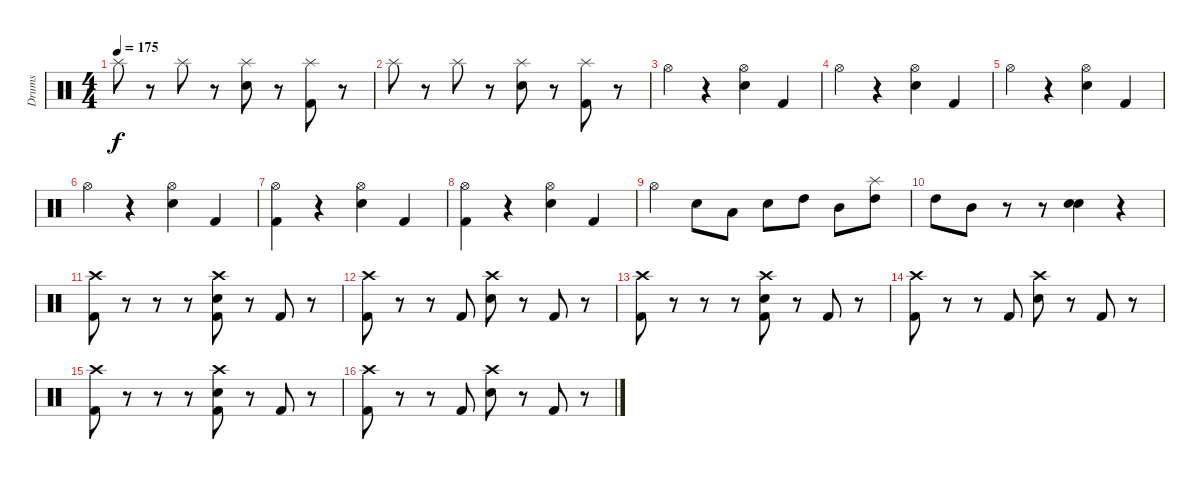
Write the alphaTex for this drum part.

\track ("Drums" "Drums") {instrument percussion}
\staff {score}
\articulation defaults
\ts (4 4)
\tempo 175
\clef neutral
\ks c "Splash (hit)".8{dy f}
r.8 "Splash (hit)".8 r.8 ("Splash (hit)" "Electric Snare (hit)").8 r.8 ("Splash (hit)" "Kick (hit) 2").8 r.8 |
"Splash (hit)".8 r.8 "Splash (hit)".8 r.8 ("Splash (hit)" "Electric Snare (hit)").8 r.8 ("Splash (hit)" "Kick (hit) 2").8 r.8 |
"Hi-Hat (open)".4 r.4 ("Hi-Hat (open)" "Electric Snare (hit)").4 "Kick (hit) 2".4 |
"Hi-Hat (open)".4 r.4 ("Hi-Hat (open)" "Electric Snare (hit)").4 "Kick (hit) 2".4 |
"Hi-Hat (open)".4 r.4 ("Hi-Hat (open)" "Electric Snare (hit)").4 "Kick (hit) 2".4 |
"Hi-Hat (open)".4 r.4 ("Hi-Hat (open)" "Electric Snare (hit)").4 "Kick (hit) 2".4 |
("Hi-Hat (open)" "Kick (hit) 2").4 r.4 ("Hi-Hat (open)" "Electric Snare (hit)").4 "Kick (hit) 2".4 |
("Hi-Hat (open)" "Kick (hit) 2").4 r.4 ("Hi-Hat (open)" "Electric Snare (hit)").4 "Kick (hit) 2".4 |
"Hi-Hat (open)".4 "Electric Snare (hit)".8 "Low Tom (hit)".8 "Snare (hit) 2".8 "High Tom (hit)".8 "Mid Tom (hit)".8 ("Splash (hit)" "High Tom (hit)").8 |
"High Tom (hit)".8 "Mid Tom (hit)".8 r.8 r.8 ("Snare (hit) 2" "Electric Snare (hit)").4 r.4 |
("Crash high (hit)" "Kick (hit) 2").8 r.8 r.8 r.8 ("Crash high (hit)" "Electric Snare (hit)" "Kick (hit) 2").8 r.8 "Kick (hit) 2".8 r.8 |
("Crash high (hit)" "Kick (hit) 2").8 r.8 r.8 "Kick (hit) 2".8 ("Crash high (hit)" "Electric Snare (hit)").8 r.8 "Kick (hit) 2".8 r.8 |
("Crash high (hit)" "Kick (hit) 2").8 r.8 r.8 r.8 ("Crash high (hit)" "Electric Snare (hit)" "Kick (hit) 2").8 r.8 "Kick (hit) 2".8 r.8 |
("Crash high (hit)" "Kick (hit) 2").8 r.8 r.8 "Kick (hit) 2".8 ("Crash high (hit)" "Electric Snare (hit)").8 r.8 "Kick (hit) 2".8 r.8 |
("Crash high (hit)" "Kick (hit) 2").8 r.8 r.8 r.8 ("Crash high (hit)" "Electric Snare (hit)" "Kick (hit) 2").8 r.8 "Kick (hit) 2".8 r.8 |
("Crash high (hit)" "Kick (hit) 2").8 r.8 r.8 "Kick (hit) 2".8 ("Crash high (hit)" "Electric Snare (hit)").8 r.8 "Kick (hit) 2".8 r.8
